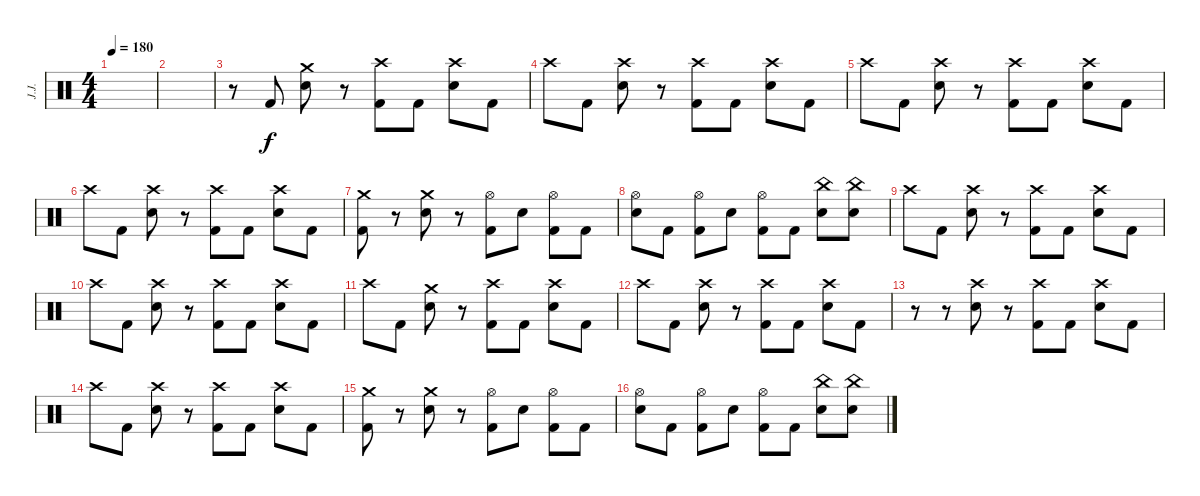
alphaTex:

\track ("J.J." "J.J.") {instrument percussion}
\staff {score}
\articulation defaults
\ts (4 4)
\tempo 180
\clef neutral
\ks c
|
|
r.8 "Kick (hit) 2".8 ("Crash medium (hit)" "Electric Snare (hit)").8 r.8 ("Crash high (hit)" "Kick (hit) 2").8 "Kick (hit) 2".8 ("Crash high (hit)" "Electric Snare (hit)").8 "Kick (hit) 2".8 |
"Crash high (hit)".8 "Kick (hit) 2".8 ("Crash high (hit)" "Electric Snare (hit)").8 r.8 ("Crash high (hit)" "Kick (hit) 2").8 "Kick (hit) 2".8 ("Crash high (hit)" "Electric Snare (hit)").8 "Kick (hit) 2".8 |
"Crash high (hit)".8 "Kick (hit) 2".8 ("Crash high (hit)" "Electric Snare (hit)").8 r.8 ("Crash high (hit)" "Kick (hit) 2").8 "Kick (hit) 2".8 ("Crash high (hit)" "Electric Snare (hit)").8 "Kick (hit) 2".8 |
"Crash high (hit)".8 "Kick (hit) 2".8 ("Crash high (hit)" "Electric Snare (hit)").8 r.8 ("Crash high (hit)" "Kick (hit) 2").8 "Kick (hit) 2".8 ("Crash high (hit)" "Electric Snare (hit)").8 "Kick (hit) 2".8 |
("Crash medium (hit)" "Kick (hit) 2").8 r.8 ("Crash medium (hit)" "Electric Snare (hit)").8 r.8 ("Hi-Hat (open)" "Kick (hit) 2").8 "Electric Snare (hit)".8 ("Hi-Hat (open)" "Kick (hit) 2").8 "Kick (hit) 2".8 |
("Hi-Hat (open)" "Electric Snare (hit)").8 "Kick (hit) 2".8 ("Hi-Hat (open)" "Kick (hit) 2").8 "Electric Snare (hit)".8 ("Hi-Hat (open)" "Kick (hit) 2").8 "Kick (hit) 2".8 ("China (hit)" "Electric Snare (hit)").8 ("China (hit)" "Electric Snare (hit)").8 |
"Crash high (hit)".8 "Kick (hit) 2".8 ("Crash high (hit)" "Electric Snare (hit)").8 r.8 ("Crash high (hit)" "Kick (hit) 2").8 "Kick (hit) 2".8 ("Crash high (hit)" "Electric Snare (hit)").8 "Kick (hit) 2".8 |
"Crash high (hit)".8 "Kick (hit) 2".8 ("Crash high (hit)" "Electric Snare (hit)").8 r.8 ("Crash high (hit)" "Kick (hit) 2").8 "Kick (hit) 2".8 ("Crash high (hit)" "Electric Snare (hit)").8 "Kick (hit) 2".8 |
"Crash high (hit)".8 "Kick (hit) 2".8 ("Crash medium (hit)" "Electric Snare (hit)").8 r.8 ("Crash high (hit)" "Kick (hit) 2").8 "Kick (hit) 2".8 ("Crash high (hit)" "Electric Snare (hit)").8 "Kick (hit) 2".8 |
"Crash high (hit)".8 "Kick (hit) 2".8 ("Crash high (hit)" "Electric Snare (hit)").8 r.8 ("Crash high (hit)" "Kick (hit) 2").8 "Kick (hit) 2".8 ("Crash high (hit)" "Electric Snare (hit)").8 "Kick (hit) 2".8 |
r.8 r.8 ("Crash high (hit)" "Electric Snare (hit)").8 r.8 ("Crash high (hit)" "Kick (hit) 2").8 "Kick (hit) 2".8 ("Crash high (hit)" "Electric Snare (hit)").8 "Kick (hit) 2".8 |
"Crash high (hit)".8 "Kick (hit) 2".8 ("Crash high (hit)" "Electric Snare (hit)").8 r.8 ("Crash high (hit)" "Kick (hit) 2").8 "Kick (hit) 2".8 ("Crash high (hit)" "Electric Snare (hit)").8 "Kick (hit) 2".8 |
("Crash medium (hit)" "Kick (hit) 2").8 r.8 ("Crash medium (hit)" "Electric Snare (hit)").8 r.8 ("Hi-Hat (open)" "Kick (hit) 2").8 "Electric Snare (hit)".8 ("Hi-Hat (open)" "Kick (hit) 2").8 "Kick (hit) 2".8 |
("Hi-Hat (open)" "Electric Snare (hit)").8 "Kick (hit) 2".8 ("Hi-Hat (open)" "Kick (hit) 2").8 "Electric Snare (hit)".8 ("Hi-Hat (open)" "Kick (hit) 2").8 "Kick (hit) 2".8 ("China (hit)" "Electric Snare (hit)").8 ("China (hit)" "Electric Snare (hit)").8
